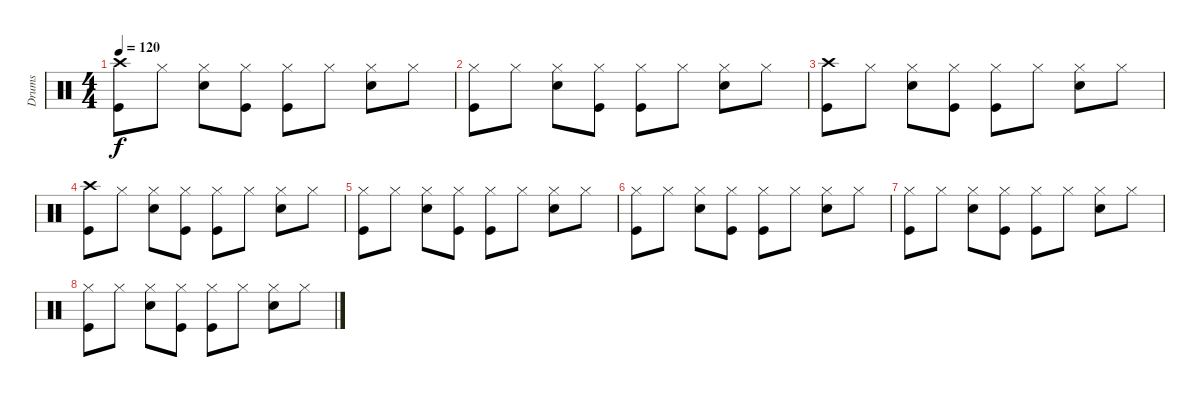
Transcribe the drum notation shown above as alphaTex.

\track ("Drums" "Drums") {instrument percussion}
\staff {score}
\articulation defaults
\ts (4 4)
\tempo 120
\clef neutral
\ks c
("Crash high (hit)" "Kick (hit)").8{dy f} "Hi-Hat (closed)".8 ("Hi-Hat (closed)" "Snare (hit) 2").8 ("Hi-Hat (closed)" "Kick (hit)").8 ("Hi-Hat (closed)" "Kick (hit)").8 "Hi-Hat (closed)".8 ("Hi-Hat (closed)" "Snare (hit) 2").8 "Hi-Hat (closed)".8 |
("Hi-Hat (closed)" "Kick (hit)").8 "Hi-Hat (closed)".8 ("Hi-Hat (closed)" "Snare (hit) 2").8 ("Hi-Hat (closed)" "Kick (hit)").8 ("Hi-Hat (closed)" "Kick (hit)").8 "Hi-Hat (closed)".8 ("Hi-Hat (closed)" "Snare (hit) 2").8 "Hi-Hat (closed)".8 |
("Crash high (hit)" "Kick (hit)").8 "Hi-Hat (closed)".8 ("Hi-Hat (closed)" "Snare (hit) 2").8 ("Hi-Hat (closed)" "Kick (hit)").8 ("Hi-Hat (closed)" "Kick (hit)").8 "Hi-Hat (closed)".8 ("Hi-Hat (closed)" "Snare (hit) 2").8 "Hi-Hat (closed)".8 |
("Crash high (hit)" "Kick (hit)").8 "Hi-Hat (closed)".8 ("Hi-Hat (closed)" "Snare (hit) 2").8 ("Hi-Hat (closed)" "Kick (hit)").8 ("Hi-Hat (closed)" "Kick (hit)").8 "Hi-Hat (closed)".8 ("Hi-Hat (closed)" "Snare (hit) 2").8 "Hi-Hat (closed)".8 |
("Hi-Hat (closed)" "Kick (hit)").8 "Hi-Hat (closed)".8 ("Hi-Hat (closed)" "Snare (hit) 2").8 ("Hi-Hat (closed)" "Kick (hit)").8 ("Hi-Hat (closed)" "Kick (hit)").8 "Hi-Hat (closed)".8 ("Hi-Hat (closed)" "Snare (hit) 2").8 "Hi-Hat (closed)".8 |
("Hi-Hat (closed)" "Kick (hit)").8 "Hi-Hat (closed)".8 ("Hi-Hat (closed)" "Snare (hit) 2").8 ("Hi-Hat (closed)" "Kick (hit)").8 ("Hi-Hat (closed)" "Kick (hit)").8 "Hi-Hat (closed)".8 ("Hi-Hat (closed)" "Snare (hit) 2").8 "Hi-Hat (closed)".8 |
("Hi-Hat (closed)" "Kick (hit)").8 "Hi-Hat (closed)".8 ("Hi-Hat (closed)" "Snare (hit) 2").8 ("Hi-Hat (closed)" "Kick (hit)").8 ("Hi-Hat (closed)" "Kick (hit)").8 "Hi-Hat (closed)".8 ("Hi-Hat (closed)" "Snare (hit) 2").8 "Hi-Hat (closed)".8 |
("Hi-Hat (closed)" "Kick (hit)").8 "Hi-Hat (closed)".8 ("Hi-Hat (closed)" "Snare (hit) 2").8 ("Hi-Hat (closed)" "Kick (hit)").8 ("Hi-Hat (closed)" "Kick (hit)").8 "Hi-Hat (closed)".8 ("Hi-Hat (closed)" "Snare (hit) 2").8 "Hi-Hat (closed)".8
